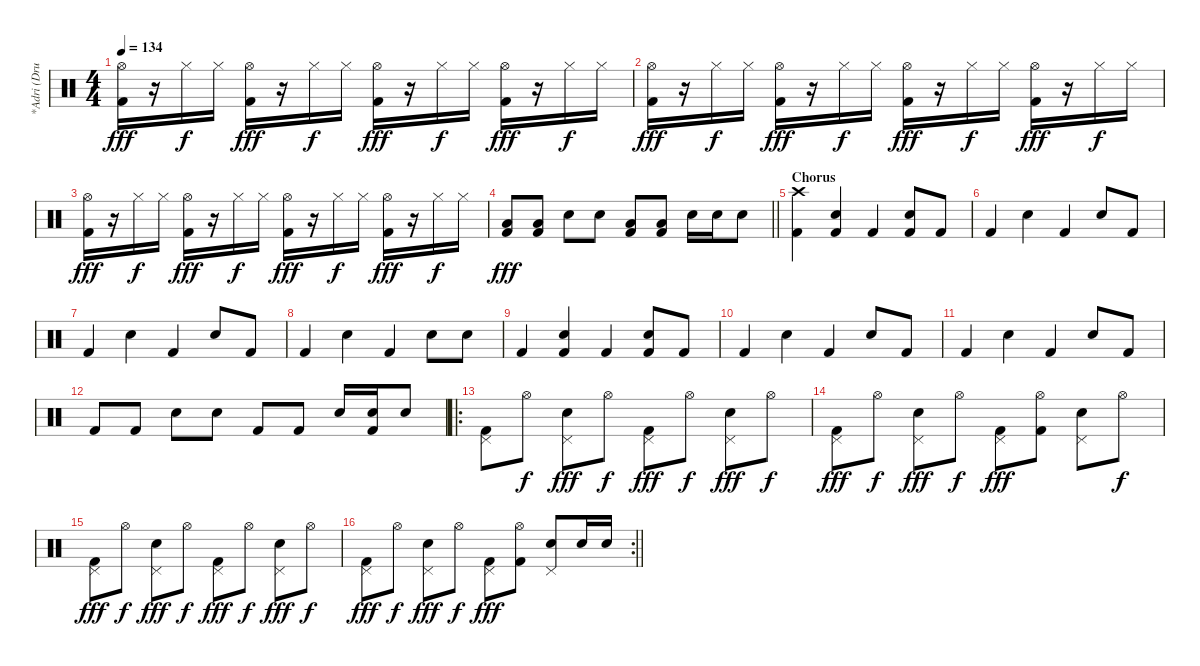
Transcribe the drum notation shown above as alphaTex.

\track ("*Adri (Drum)" "*Adri (Dru") {instrument percussion}
\staff {score}
\articulation defaults
\ts (4 4)
\tempo 134
\clef neutral
\ks c
("Hi-Hat (open)" "Kick (hit) 2").16{dy fff} r.16 "Hi-Hat (closed)".16{dy f} "Hi-Hat (closed)".16 ("Hi-Hat (open)" "Kick (hit) 2").16{dy fff} r.16 "Hi-Hat (closed)".16{dy f} "Hi-Hat (closed)".16 ("Hi-Hat (open)" "Kick (hit) 2").16{dy fff} r.16 "Hi-Hat (closed)".16{dy f} "Hi-Hat (closed)".16 ("Hi-Hat (open)" "Kick (hit) 2").16{dy fff} r.16 "Hi-Hat (closed)".16{dy f} "Hi-Hat (closed)".16 |
("Hi-Hat (open)" "Kick (hit) 2").16{dy fff} r.16 "Hi-Hat (closed)".16{dy f} "Hi-Hat (closed)".16 ("Hi-Hat (open)" "Kick (hit) 2").16{dy fff} r.16 "Hi-Hat (closed)".16{dy f} "Hi-Hat (closed)".16 ("Hi-Hat (open)" "Kick (hit) 2").16{dy fff} r.16 "Hi-Hat (closed)".16{dy f} "Hi-Hat (closed)".16 ("Hi-Hat (open)" "Kick (hit) 2").16{dy fff} r.16 "Hi-Hat (closed)".16{dy f} "Hi-Hat (closed)".16 |
("Hi-Hat (open)" "Kick (hit) 2").16{dy fff} r.16 "Hi-Hat (closed)".16{dy f} "Hi-Hat (closed)".16 ("Hi-Hat (open)" "Kick (hit) 2").16{dy fff} r.16 "Hi-Hat (closed)".16{dy f} "Hi-Hat (closed)".16 ("Hi-Hat (open)" "Kick (hit) 2").16{dy fff} r.16 "Hi-Hat (closed)".16{dy f} "Hi-Hat (closed)".16 ("Hi-Hat (open)" "Kick (hit) 2").16{dy fff} r.16 "Hi-Hat (closed)".16{dy f} "Hi-Hat (closed)".16 |
\barLineRight lightlight
("Low Tom (hit)" "Kick (hit) 2").8{dy fff} ("Low Tom (hit)" "Kick (hit) 2").8 "Snare (hit) 2".8 "Snare (hit) 2".8 ("Low Tom (hit)" "Kick (hit) 2").8 ("Low Tom (hit)" "Kick (hit) 2").8 "Snare (hit) 2".16 "Snare (hit) 2".16 "Snare (hit) 2".8 |
\section ("" "Chorus")
("Crash high (hit)" "Kick (hit) 2").4 ("Snare (hit) 2" "Kick (hit) 2").4 "Kick (hit) 2".4 ("Snare (hit) 2" "Kick (hit) 2").8 "Kick (hit) 2".8 |
"Kick (hit) 2".4 "Snare (hit) 2".4 "Kick (hit) 2".4 "Snare (hit) 2".8 "Kick (hit) 2".8 |
"Kick (hit) 2".4 "Snare (hit) 2".4 "Kick (hit) 2".4 "Snare (hit) 2".8 "Kick (hit) 2".8 |
"Kick (hit) 2".4 "Snare (hit) 2".4 "Kick (hit) 2".4 "Snare (hit) 2".8 "Snare (hit) 2".8 |
"Kick (hit) 2".4 ("Snare (hit) 2" "Kick (hit) 2").4 "Kick (hit) 2".4 ("Snare (hit) 2" "Kick (hit) 2").8 "Kick (hit) 2".8 |
"Kick (hit) 2".4 "Snare (hit) 2".4 "Kick (hit) 2".4 "Snare (hit) 2".8 "Kick (hit) 2".8 |
"Kick (hit) 2".4 "Snare (hit) 2".4 "Kick (hit) 2".4 "Snare (hit) 2".8 "Kick (hit) 2".8 |
"Kick (hit) 2".8 "Kick (hit) 2".8 "Snare (hit) 2".8 "Snare (hit) 2".8 "Kick (hit) 2".8 "Kick (hit) 2".8 "Snare (hit) 2".16 ("Snare (hit) 2" "Kick (hit) 2").16 "Snare (hit) 2".8 |
\ro
("Pedal Hi-Hat (hit)" "Kick (hit) 2").8 "Hi-Hat (open)".8{dy f} ("Pedal Hi-Hat (hit)" "Snare (hit) 2").8{dy fff} "Hi-Hat (open)".8{dy f} ("Pedal Hi-Hat (hit)" "Kick (hit) 2").8{dy fff} "Hi-Hat (open)".8{dy f} ("Pedal Hi-Hat (hit)" "Snare (hit) 2").8{dy fff} "Hi-Hat (open)".8{dy f} |
("Pedal Hi-Hat (hit)" "Kick (hit) 2").8{dy fff} "Hi-Hat (open)".8{dy f} ("Pedal Hi-Hat (hit)" "Snare (hit) 2").8{dy fff} "Hi-Hat (open)".8{dy f} ("Pedal Hi-Hat (hit)" "Kick (hit) 2").8{dy fff} ("Hi-Hat (open)" "Kick (hit) 2").8 ("Pedal Hi-Hat (hit)" "Snare (hit) 2").8 "Hi-Hat (open)".8{dy f} |
("Pedal Hi-Hat (hit)" "Kick (hit) 2").8{dy fff} "Hi-Hat (open)".8{dy f} ("Pedal Hi-Hat (hit)" "Snare (hit) 2").8{dy fff} "Hi-Hat (open)".8{dy f} ("Pedal Hi-Hat (hit)" "Kick (hit) 2").8{dy fff} "Hi-Hat (open)".8{dy f} ("Pedal Hi-Hat (hit)" "Snare (hit) 2").8{dy fff} "Hi-Hat (open)".8{dy f} |
\rc 2
\barLineRight lightlight
("Pedal Hi-Hat (hit)" "Kick (hit) 2").8{dy fff} "Hi-Hat (open)".8{dy f} ("Pedal Hi-Hat (hit)" "Snare (hit) 2").8{dy fff} "Hi-Hat (open)".8{dy f} ("Pedal Hi-Hat (hit)" "Kick (hit) 2").8{dy fff} ("Hi-Hat (open)" "Kick (hit) 2").8 ("Pedal Hi-Hat (hit)" "Snare (hit) 2").8 "Snare (hit) 2".16 "Snare (hit) 2".16
